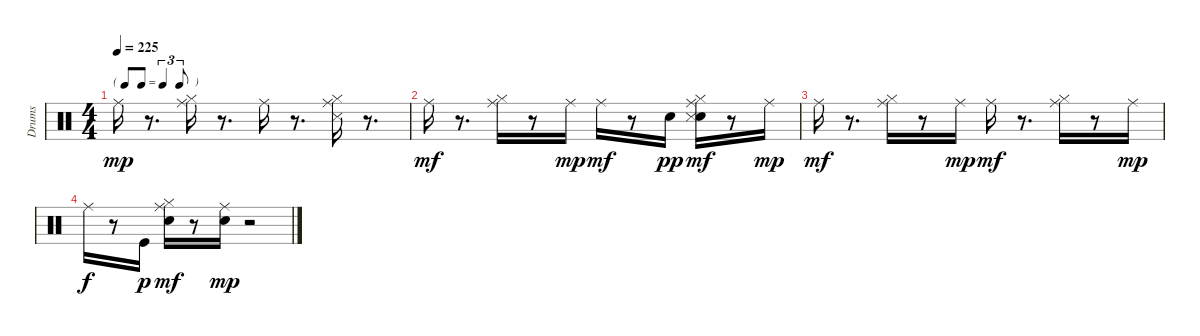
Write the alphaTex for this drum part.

\track ("Drums   " "Drums   ") {instrument percussion}
\staff {score}
\articulation defaults
\ts (4 4)
\tf triplet8th
\tempo 225
\clef neutral
\ks c "Ride (middle)".16{dy mp}
r.8{d} ("Hi-Hat (closed)" "Ride (middle)").16 r.8{d} "Ride (middle)".16 r.8{d} ("Hi-Hat (closed)" "Snare (side stick) 3" "Ride (middle)").16 r.8{d} |
"Ride (middle)".16{dy mf} r.8{d} ("Hi-Hat (closed)" "Ride (middle)").16 r.8 "Ride (middle)".16{dy mp} "Ride (middle)".16{dy mf} r.8 "Snare (hit) 2".16{dy pp} ("Snare (hit) 2" "Hi-Hat (closed)" "Snare (side stick) 3" "Ride (middle)").16{dy mf} r.8 "Ride (middle)".16{dy mp} |
"Ride (middle)".16{dy mf} r.8{d} ("Hi-Hat (closed)" "Ride (middle)").16 r.8 "Ride (middle)".16{dy mp} "Ride (middle)".16{dy mf} r.8{d} ("Hi-Hat (closed)" "Ride (middle)").16 r.8 "Ride (middle)".16{dy mp} |
"Ride (middle)".16{dy f} r.8 "Kick (hit)".16{dy p} ("Snare (hit) 2" "Hi-Hat (closed)" "Ride (middle)").16{dy mf} r.8 ("Snare (hit) 2" "Ride (middle)").16{dy mp} r.2
